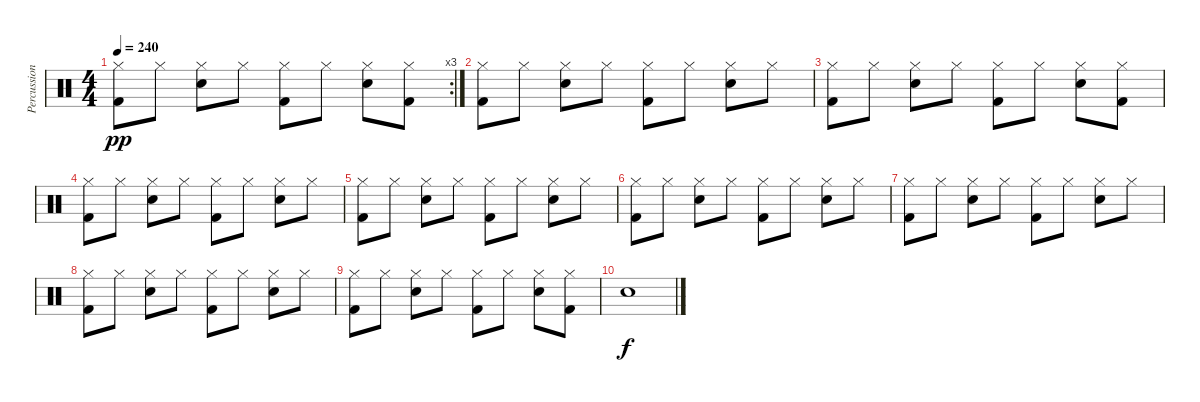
\track ("Percussion" "Percussion") {instrument percussion}
\staff {score}
\articulation defaults
\rc 3
\ts (4 4)
\tempo 240
\clef neutral
\ks c
("Kick (hit) 2" "Hi-Hat (closed)").8{dy pp} "Hi-Hat (closed)".8 ("Electric Snare (hit)" "Hi-Hat (closed)").8 "Hi-Hat (closed)".8 ("Kick (hit) 2" "Hi-Hat (closed)").8 "Hi-Hat (closed)".8 ("Electric Snare (hit)" "Hi-Hat (closed)").8 ("Kick (hit) 2" "Hi-Hat (closed)").8 |
("Kick (hit) 2" "Hi-Hat (closed)").8 "Hi-Hat (closed)".8 ("Electric Snare (hit)" "Hi-Hat (closed)").8 "Hi-Hat (closed)".8 ("Kick (hit) 2" "Hi-Hat (closed)").8 "Hi-Hat (closed)".8 ("Electric Snare (hit)" "Hi-Hat (closed)").8 "Hi-Hat (closed)".8 |
("Kick (hit) 2" "Hi-Hat (closed)").8 "Hi-Hat (closed)".8 ("Electric Snare (hit)" "Hi-Hat (closed)").8 "Hi-Hat (closed)".8 ("Kick (hit) 2" "Hi-Hat (closed)").8 "Hi-Hat (closed)".8 ("Electric Snare (hit)" "Hi-Hat (closed)").8 ("Kick (hit) 2" "Hi-Hat (closed)").8 |
("Kick (hit) 2" "Hi-Hat (closed)").8 "Hi-Hat (closed)".8 ("Electric Snare (hit)" "Hi-Hat (closed)").8 "Hi-Hat (closed)".8 ("Kick (hit) 2" "Hi-Hat (closed)").8 "Hi-Hat (closed)".8 ("Electric Snare (hit)" "Hi-Hat (closed)").8 "Hi-Hat (closed)".8 |
("Kick (hit) 2" "Hi-Hat (closed)").8 "Hi-Hat (closed)".8 ("Electric Snare (hit)" "Hi-Hat (closed)").8 "Hi-Hat (closed)".8 ("Kick (hit) 2" "Hi-Hat (closed)").8 "Hi-Hat (closed)".8 ("Electric Snare (hit)" "Hi-Hat (closed)").8 "Hi-Hat (closed)".8 |
("Kick (hit) 2" "Hi-Hat (closed)").8 "Hi-Hat (closed)".8 ("Electric Snare (hit)" "Hi-Hat (closed)").8 "Hi-Hat (closed)".8 ("Kick (hit) 2" "Hi-Hat (closed)").8 "Hi-Hat (closed)".8 ("Electric Snare (hit)" "Hi-Hat (closed)").8 "Hi-Hat (closed)".8 |
("Kick (hit) 2" "Hi-Hat (closed)").8 "Hi-Hat (closed)".8 ("Electric Snare (hit)" "Hi-Hat (closed)").8 "Hi-Hat (closed)".8 ("Kick (hit) 2" "Hi-Hat (closed)").8 "Hi-Hat (closed)".8 ("Electric Snare (hit)" "Hi-Hat (closed)").8 "Hi-Hat (closed)".8 |
("Kick (hit) 2" "Hi-Hat (closed)").8 "Hi-Hat (closed)".8 ("Electric Snare (hit)" "Hi-Hat (closed)").8 "Hi-Hat (closed)".8 ("Kick (hit) 2" "Hi-Hat (closed)").8 "Hi-Hat (closed)".8 ("Electric Snare (hit)" "Hi-Hat (closed)").8 "Hi-Hat (closed)".8 |
("Kick (hit) 2" "Hi-Hat (closed)").8 "Hi-Hat (closed)".8 ("Electric Snare (hit)" "Hi-Hat (closed)").8 "Hi-Hat (closed)".8 ("Kick (hit) 2" "Hi-Hat (closed)").8 "Hi-Hat (closed)".8 ("Electric Snare (hit)" "Hi-Hat (closed)").8 ("Kick (hit) 2" "Hi-Hat (closed)").8 |
"Electric Snare (hit)".1{dy f}
